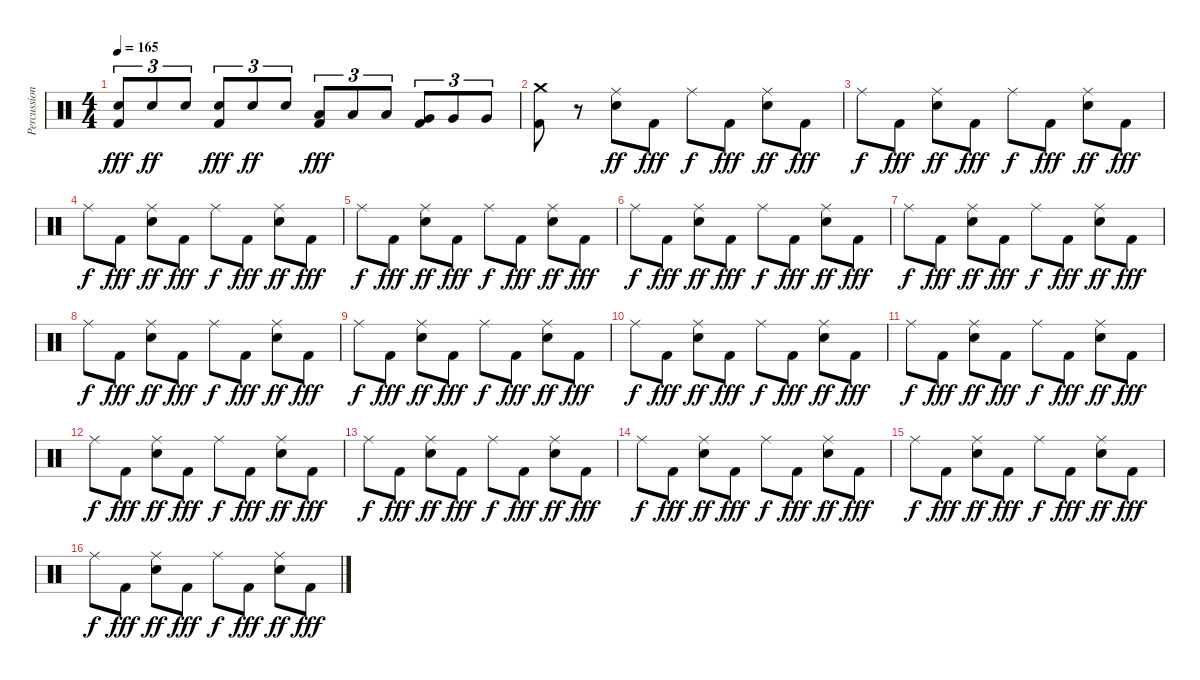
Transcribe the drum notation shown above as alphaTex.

\track ("Percussion" "Percussion") {instrument percussion}
\staff {score}
\articulation defaults
\ts (4 4)
\tempo 165
\clef neutral
\ks c
("Electric Snare (hit)" "Kick (hit) 2").8{tu (3 2) dy fff} "Electric Snare (hit)".8{tu (3 2) dy ff} "Electric Snare (hit)".8{tu (3 2)} ("Electric Snare (hit)" "Kick (hit) 2").8{tu (3 2) dy fff} "Electric Snare (hit)".8{tu (3 2) dy ff} "Electric Snare (hit)".8{tu (3 2)} ("Low Tom (hit)" "Kick (hit) 2").8{tu (3 2) dy fff} "Low Tom (hit)".8{tu (3 2)} "Low Tom (hit)".8{tu (3 2)} ("Very Low Tom (hit)" "Kick (hit) 2").8{tu (3 2)} "Very Low Tom (hit)".8{tu (3 2)} "Very Low Tom (hit)".8{tu (3 2)} |
("Crash medium (hit)" "Kick (hit) 2").8 r.8 ("Ride (middle)" "Electric Snare (hit)").8{dy ff} "Kick (hit) 2".8{dy fff} "Ride (middle)".8{dy f} "Kick (hit) 2".8{dy fff} ("Ride (middle)" "Electric Snare (hit)").8{dy ff} "Kick (hit) 2".8{dy fff} |
"Ride (middle)".8{dy f} "Kick (hit) 2".8{dy fff} ("Ride (middle)" "Electric Snare (hit)").8{dy ff} "Kick (hit) 2".8{dy fff} "Ride (middle)".8{dy f} "Kick (hit) 2".8{dy fff} ("Ride (middle)" "Electric Snare (hit)").8{dy ff} "Kick (hit) 2".8{dy fff} |
"Ride (middle)".8{dy f} "Kick (hit) 2".8{dy fff} ("Ride (middle)" "Electric Snare (hit)").8{dy ff} "Kick (hit) 2".8{dy fff} "Ride (middle)".8{dy f} "Kick (hit) 2".8{dy fff} ("Ride (middle)" "Electric Snare (hit)").8{dy ff} "Kick (hit) 2".8{dy fff} |
"Ride (middle)".8{dy f} "Kick (hit) 2".8{dy fff} ("Ride (middle)" "Electric Snare (hit)").8{dy ff} "Kick (hit) 2".8{dy fff} "Ride (middle)".8{dy f} "Kick (hit) 2".8{dy fff} ("Ride (middle)" "Electric Snare (hit)").8{dy ff} "Kick (hit) 2".8{dy fff} |
"Ride (middle)".8{dy f} "Kick (hit) 2".8{dy fff} ("Ride (middle)" "Electric Snare (hit)").8{dy ff} "Kick (hit) 2".8{dy fff} "Ride (middle)".8{dy f} "Kick (hit) 2".8{dy fff} ("Ride (middle)" "Electric Snare (hit)").8{dy ff} "Kick (hit) 2".8{dy fff} |
"Ride (middle)".8{dy f} "Kick (hit) 2".8{dy fff} ("Ride (middle)" "Electric Snare (hit)").8{dy ff} "Kick (hit) 2".8{dy fff} "Ride (middle)".8{dy f} "Kick (hit) 2".8{dy fff} ("Ride (middle)" "Electric Snare (hit)").8{dy ff} "Kick (hit) 2".8{dy fff} |
"Ride (middle)".8{dy f} "Kick (hit) 2".8{dy fff} ("Ride (middle)" "Electric Snare (hit)").8{dy ff} "Kick (hit) 2".8{dy fff} "Ride (middle)".8{dy f} "Kick (hit) 2".8{dy fff} ("Ride (middle)" "Electric Snare (hit)").8{dy ff} "Kick (hit) 2".8{dy fff} |
"Ride (middle)".8{dy f} "Kick (hit) 2".8{dy fff} ("Ride (middle)" "Electric Snare (hit)").8{dy ff} "Kick (hit) 2".8{dy fff} "Ride (middle)".8{dy f} "Kick (hit) 2".8{dy fff} ("Ride (middle)" "Electric Snare (hit)").8{dy ff} "Kick (hit) 2".8{dy fff} |
"Ride (middle)".8{dy f} "Kick (hit) 2".8{dy fff} ("Ride (middle)" "Electric Snare (hit)").8{dy ff} "Kick (hit) 2".8{dy fff} "Ride (middle)".8{dy f} "Kick (hit) 2".8{dy fff} ("Ride (middle)" "Electric Snare (hit)").8{dy ff} "Kick (hit) 2".8{dy fff} |
"Ride (middle)".8{dy f} "Kick (hit) 2".8{dy fff} ("Ride (middle)" "Electric Snare (hit)").8{dy ff} "Kick (hit) 2".8{dy fff} "Ride (middle)".8{dy f} "Kick (hit) 2".8{dy fff} ("Ride (middle)" "Electric Snare (hit)").8{dy ff} "Kick (hit) 2".8{dy fff} |
"Ride (middle)".8{dy f} "Kick (hit) 2".8{dy fff} ("Ride (middle)" "Electric Snare (hit)").8{dy ff} "Kick (hit) 2".8{dy fff} "Ride (middle)".8{dy f} "Kick (hit) 2".8{dy fff} ("Ride (middle)" "Electric Snare (hit)").8{dy ff} "Kick (hit) 2".8{dy fff} |
"Ride (middle)".8{dy f} "Kick (hit) 2".8{dy fff} ("Ride (middle)" "Electric Snare (hit)").8{dy ff} "Kick (hit) 2".8{dy fff} "Ride (middle)".8{dy f} "Kick (hit) 2".8{dy fff} ("Ride (middle)" "Electric Snare (hit)").8{dy ff} "Kick (hit) 2".8{dy fff} |
"Ride (middle)".8{dy f} "Kick (hit) 2".8{dy fff} ("Ride (middle)" "Electric Snare (hit)").8{dy ff} "Kick (hit) 2".8{dy fff} "Ride (middle)".8{dy f} "Kick (hit) 2".8{dy fff} ("Ride (middle)" "Electric Snare (hit)").8{dy ff} "Kick (hit) 2".8{dy fff} |
"Ride (middle)".8{dy f} "Kick (hit) 2".8{dy fff} ("Ride (middle)" "Electric Snare (hit)").8{dy ff} "Kick (hit) 2".8{dy fff} "Ride (middle)".8{dy f} "Kick (hit) 2".8{dy fff} ("Ride (middle)" "Electric Snare (hit)").8{dy ff} "Kick (hit) 2".8{dy fff} |
"Ride (middle)".8{dy f} "Kick (hit) 2".8{dy fff} ("Ride (middle)" "Electric Snare (hit)").8{dy ff} "Kick (hit) 2".8{dy fff} "Ride (middle)".8{dy f} "Kick (hit) 2".8{dy fff} ("Ride (middle)" "Electric Snare (hit)").8{dy ff} "Kick (hit) 2".8{dy fff}
